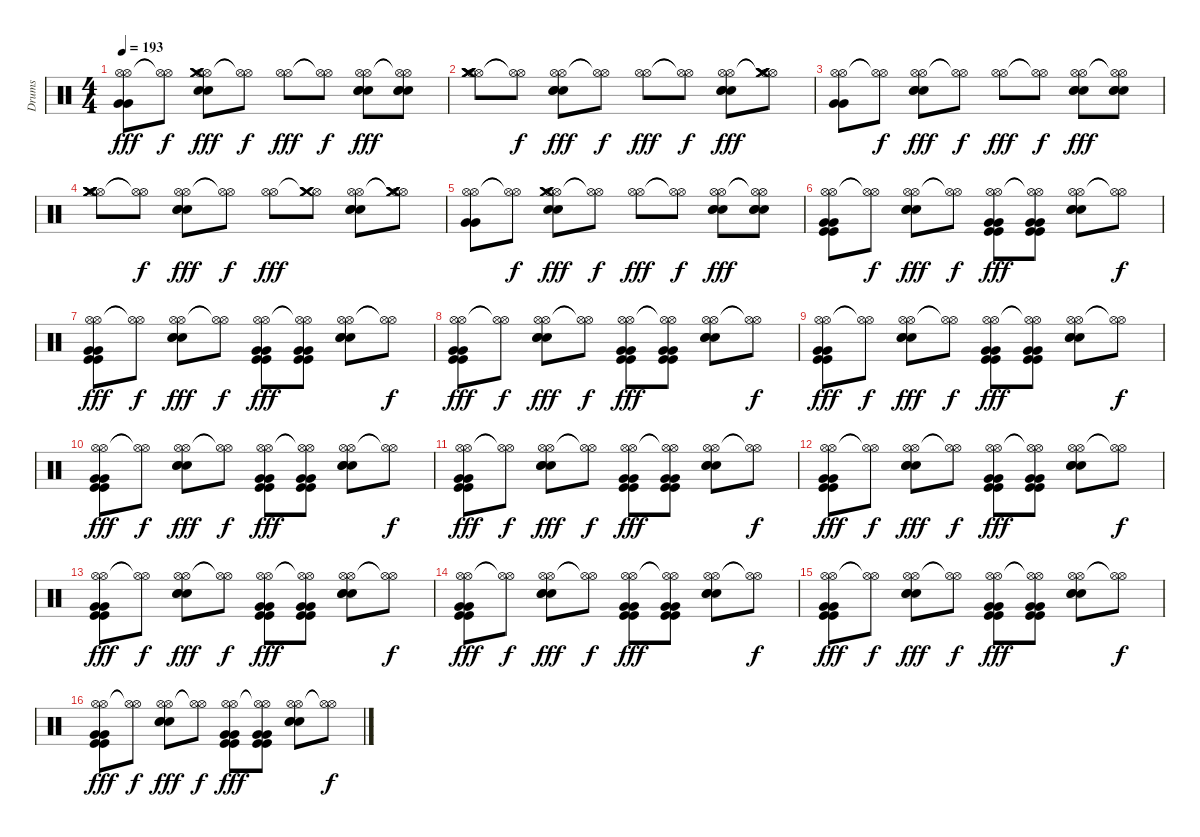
\track ("Drums" "Drums") {instrument percussion}
\staff {score}
\articulation defaults
\ts (4 4)
\tempo 193
\clef neutral
\ks c
("Hi-Hat (open)" "Hi-Hat (open)" "Very Low Tom (hit)" "Very Low Tom (hit)").8{dy fff} ("Hi-Hat (open)"{t} "Hi-Hat (open)"{t}).8{dy f} ("Hi-Hat (open)" "Hi-Hat (open)" "Crash medium (hit)" "Crash medium (hit)" "Snare (hit) 2" "Snare (hit) 2").8{dy fff} ("Hi-Hat (open)"{t} "Hi-Hat (open)"{t}).8{dy f} ("Hi-Hat (open)" "Hi-Hat (open)").8{dy fff} ("Hi-Hat (open)"{t} "Hi-Hat (open)"{t}).8{dy f} ("Hi-Hat (open)" "Hi-Hat (open)" "Snare (hit) 2" "Snare (hit) 2" "Snare (hit) 2").8{dy fff} ("Hi-Hat (open)"{t} "Hi-Hat (open)"{t} "Snare (hit) 2" "Snare (hit) 2" "Snare (hit) 2").8 |
("Hi-Hat (open)" "Hi-Hat (open)" "Crash medium (hit)" "Crash medium (hit)" "Crash medium (hit)" "Crash medium (hit)").8 ("Hi-Hat (open)"{t} "Hi-Hat (open)"{t}).8{dy f} ("Hi-Hat (open)" "Hi-Hat (open)" "Snare (hit) 2" "Snare (hit) 2" "Snare (hit) 2").8{dy fff} ("Hi-Hat (open)"{t} "Hi-Hat (open)"{t}).8{dy f} ("Hi-Hat (open)" "Hi-Hat (open)").8{dy fff} ("Hi-Hat (open)"{t} "Hi-Hat (open)"{t}).8{dy f} ("Hi-Hat (open)" "Hi-Hat (open)" "Snare (hit) 2" "Snare (hit) 2" "Snare (hit) 2").8{dy fff} ("Hi-Hat (open)"{t} "Hi-Hat (open)"{t} "Crash medium (hit)" "Crash medium (hit)" "Crash medium (hit)").8 |
("Hi-Hat (open)" "Hi-Hat (open)" "Very Low Tom (hit)" "Very Low Tom (hit)").8 ("Hi-Hat (open)"{t} "Hi-Hat (open)"{t}).8{dy f} ("Hi-Hat (open)" "Hi-Hat (open)" "Snare (hit) 2" "Snare (hit) 2" "Snare (hit) 2").8{dy fff} ("Hi-Hat (open)"{t} "Hi-Hat (open)"{t}).8{dy f} ("Hi-Hat (open)" "Hi-Hat (open)").8{dy fff} ("Hi-Hat (open)"{t} "Hi-Hat (open)"{t}).8{dy f} ("Hi-Hat (open)" "Hi-Hat (open)" "Snare (hit) 2" "Snare (hit) 2" "Snare (hit) 2").8{dy fff} ("Hi-Hat (open)"{t} "Hi-Hat (open)"{t} "Snare (hit) 2" "Snare (hit) 2" "Snare (hit) 2").8 |
("Hi-Hat (open)" "Hi-Hat (open)" "Crash medium (hit)" "Crash medium (hit)" "Crash medium (hit)" "Crash medium (hit)").8 ("Hi-Hat (open)"{t} "Hi-Hat (open)"{t}).8{dy f} ("Hi-Hat (open)" "Hi-Hat (open)" "Snare (hit) 2" "Snare (hit) 2" "Snare (hit) 2").8{dy fff} ("Hi-Hat (open)"{t} "Hi-Hat (open)"{t}).8{dy f} ("Hi-Hat (open)" "Hi-Hat (open)").8{dy fff} ("Hi-Hat (open)"{t} "Crash medium (hit)" "Crash medium (hit)" "Crash medium (hit)").8 ("Hi-Hat (open)" "Hi-Hat (open)" "Snare (hit) 2" "Snare (hit) 2" "Snare (hit) 2").8 ("Hi-Hat (open)"{t} "Hi-Hat (open)"{t} "Crash medium (hit)" "Crash medium (hit)" "Crash medium (hit)").8 |
("Hi-Hat (open)" "Hi-Hat (open)" "Very Low Tom (hit)" "Very Low Tom (hit)").8 ("Hi-Hat (open)"{t} "Hi-Hat (open)"{t}).8{dy f} ("Hi-Hat (open)" "Hi-Hat (open)" "Crash medium (hit)" "Crash medium (hit)" "Snare (hit) 2" "Snare (hit) 2").8{dy fff} ("Hi-Hat (open)"{t} "Hi-Hat (open)"{t}).8{dy f} ("Hi-Hat (open)" "Hi-Hat (open)").8{dy fff} ("Hi-Hat (open)"{t} "Hi-Hat (open)"{t}).8{dy f} ("Hi-Hat (open)" "Hi-Hat (open)" "Snare (hit) 2" "Snare (hit) 2" "Snare (hit) 2").8{dy fff} ("Hi-Hat (open)"{t} "Hi-Hat (open)"{t} "Snare (hit) 2" "Snare (hit) 2" "Snare (hit) 2").8 |
("Hi-Hat (open)" "Hi-Hat (open)" "Kick (hit)" "Kick (hit)" "Very Low Tom (hit)" "Very Low Tom (hit)").8 ("Hi-Hat (open)"{t} "Hi-Hat (open)"{t}).8{dy f} ("Hi-Hat (open)" "Hi-Hat (open)" "Snare (hit) 2" "Snare (hit) 2" "Snare (hit) 2").8{dy fff} ("Hi-Hat (open)"{t} "Hi-Hat (open)"{t}).8{dy f} ("Hi-Hat (open)" "Hi-Hat (open)" "Kick (hit)" "Kick (hit)" "Very Low Tom (hit)" "Very Low Tom (hit)").8{dy fff} ("Hi-Hat (open)"{t} "Hi-Hat (open)"{t} "Kick (hit)" "Kick (hit)" "Very Low Tom (hit)" "Very Low Tom (hit)").8 ("Hi-Hat (open)" "Hi-Hat (open)" "Snare (hit) 2" "Snare (hit) 2" "Snare (hit) 2").8 ("Hi-Hat (open)"{t} "Hi-Hat (open)"{t}).8{dy f} |
("Hi-Hat (open)" "Hi-Hat (open)" "Kick (hit)" "Kick (hit)" "Very Low Tom (hit)" "Very Low Tom (hit)").8{dy fff} ("Hi-Hat (open)"{t} "Hi-Hat (open)"{t}).8{dy f} ("Hi-Hat (open)" "Hi-Hat (open)" "Snare (hit) 2" "Snare (hit) 2" "Snare (hit) 2").8{dy fff} ("Hi-Hat (open)"{t} "Hi-Hat (open)"{t}).8{dy f} ("Hi-Hat (open)" "Hi-Hat (open)" "Kick (hit)" "Kick (hit)" "Very Low Tom (hit)" "Very Low Tom (hit)").8{dy fff} ("Hi-Hat (open)"{t} "Hi-Hat (open)"{t} "Kick (hit)" "Kick (hit)" "Very Low Tom (hit)" "Very Low Tom (hit)").8 ("Hi-Hat (open)" "Hi-Hat (open)" "Snare (hit) 2" "Snare (hit) 2" "Snare (hit) 2").8 ("Hi-Hat (open)"{t} "Hi-Hat (open)"{t}).8{dy f} |
("Hi-Hat (open)" "Hi-Hat (open)" "Kick (hit)" "Kick (hit)" "Very Low Tom (hit)" "Very Low Tom (hit)").8{dy fff} ("Hi-Hat (open)"{t} "Hi-Hat (open)"{t}).8{dy f} ("Hi-Hat (open)" "Hi-Hat (open)" "Snare (hit) 2" "Snare (hit) 2" "Snare (hit) 2").8{dy fff} ("Hi-Hat (open)"{t} "Hi-Hat (open)"{t}).8{dy f} ("Hi-Hat (open)" "Hi-Hat (open)" "Kick (hit)" "Kick (hit)" "Very Low Tom (hit)" "Very Low Tom (hit)").8{dy fff} ("Hi-Hat (open)"{t} "Hi-Hat (open)"{t} "Kick (hit)" "Kick (hit)" "Very Low Tom (hit)" "Very Low Tom (hit)").8 ("Hi-Hat (open)" "Hi-Hat (open)" "Snare (hit) 2" "Snare (hit) 2" "Snare (hit) 2").8 ("Hi-Hat (open)"{t} "Hi-Hat (open)"{t}).8{dy f} |
("Hi-Hat (open)" "Hi-Hat (open)" "Kick (hit)" "Kick (hit)" "Very Low Tom (hit)" "Very Low Tom (hit)").8{dy fff} ("Hi-Hat (open)"{t} "Hi-Hat (open)"{t}).8{dy f} ("Hi-Hat (open)" "Hi-Hat (open)" "Snare (hit) 2" "Snare (hit) 2" "Snare (hit) 2").8{dy fff} ("Hi-Hat (open)"{t} "Hi-Hat (open)"{t}).8{dy f} ("Hi-Hat (open)" "Hi-Hat (open)" "Kick (hit)" "Kick (hit)" "Very Low Tom (hit)" "Very Low Tom (hit)").8{dy fff} ("Hi-Hat (open)"{t} "Hi-Hat (open)"{t} "Kick (hit)" "Kick (hit)" "Very Low Tom (hit)" "Very Low Tom (hit)").8 ("Hi-Hat (open)" "Hi-Hat (open)" "Snare (hit) 2" "Snare (hit) 2" "Snare (hit) 2").8 ("Hi-Hat (open)"{t} "Hi-Hat (open)"{t}).8{dy f} |
("Hi-Hat (open)" "Hi-Hat (open)" "Kick (hit)" "Kick (hit)" "Very Low Tom (hit)" "Very Low Tom (hit)").8{dy fff} ("Hi-Hat (open)"{t} "Hi-Hat (open)"{t}).8{dy f} ("Hi-Hat (open)" "Hi-Hat (open)" "Snare (hit) 2" "Snare (hit) 2" "Snare (hit) 2").8{dy fff} ("Hi-Hat (open)"{t} "Hi-Hat (open)"{t}).8{dy f} ("Hi-Hat (open)" "Hi-Hat (open)" "Kick (hit)" "Kick (hit)" "Very Low Tom (hit)" "Very Low Tom (hit)").8{dy fff} ("Hi-Hat (open)"{t} "Hi-Hat (open)"{t} "Kick (hit)" "Kick (hit)" "Very Low Tom (hit)" "Very Low Tom (hit)").8 ("Hi-Hat (open)" "Hi-Hat (open)" "Snare (hit) 2" "Snare (hit) 2" "Snare (hit) 2").8 ("Hi-Hat (open)"{t} "Hi-Hat (open)"{t}).8{dy f} |
("Hi-Hat (open)" "Hi-Hat (open)" "Kick (hit)" "Kick (hit)" "Very Low Tom (hit)" "Very Low Tom (hit)").8{dy fff} ("Hi-Hat (open)"{t} "Hi-Hat (open)"{t}).8{dy f} ("Hi-Hat (open)" "Hi-Hat (open)" "Snare (hit) 2" "Snare (hit) 2" "Snare (hit) 2").8{dy fff} ("Hi-Hat (open)"{t} "Hi-Hat (open)"{t}).8{dy f} ("Hi-Hat (open)" "Hi-Hat (open)" "Kick (hit)" "Kick (hit)" "Very Low Tom (hit)" "Very Low Tom (hit)").8{dy fff} ("Hi-Hat (open)"{t} "Hi-Hat (open)"{t} "Kick (hit)" "Kick (hit)" "Very Low Tom (hit)" "Very Low Tom (hit)").8 ("Hi-Hat (open)" "Hi-Hat (open)" "Snare (hit) 2" "Snare (hit) 2" "Snare (hit) 2").8 ("Hi-Hat (open)"{t} "Hi-Hat (open)"{t}).8{dy f} |
("Hi-Hat (open)" "Hi-Hat (open)" "Kick (hit)" "Kick (hit)" "Very Low Tom (hit)" "Very Low Tom (hit)").8{dy fff} ("Hi-Hat (open)"{t} "Hi-Hat (open)"{t}).8{dy f} ("Hi-Hat (open)" "Hi-Hat (open)" "Snare (hit) 2" "Snare (hit) 2" "Snare (hit) 2").8{dy fff} ("Hi-Hat (open)"{t} "Hi-Hat (open)"{t}).8{dy f} ("Hi-Hat (open)" "Hi-Hat (open)" "Kick (hit)" "Kick (hit)" "Very Low Tom (hit)" "Very Low Tom (hit)").8{dy fff} ("Hi-Hat (open)"{t} "Hi-Hat (open)"{t} "Kick (hit)" "Kick (hit)" "Very Low Tom (hit)" "Very Low Tom (hit)").8 ("Hi-Hat (open)" "Hi-Hat (open)" "Snare (hit) 2" "Snare (hit) 2" "Snare (hit) 2").8 ("Hi-Hat (open)"{t} "Hi-Hat (open)"{t}).8{dy f} |
("Hi-Hat (open)" "Hi-Hat (open)" "Kick (hit)" "Kick (hit)" "Very Low Tom (hit)" "Very Low Tom (hit)").8{dy fff} ("Hi-Hat (open)"{t} "Hi-Hat (open)"{t}).8{dy f} ("Hi-Hat (open)" "Hi-Hat (open)" "Snare (hit) 2" "Snare (hit) 2" "Snare (hit) 2").8{dy fff} ("Hi-Hat (open)"{t} "Hi-Hat (open)"{t}).8{dy f} ("Hi-Hat (open)" "Hi-Hat (open)" "Kick (hit)" "Kick (hit)" "Very Low Tom (hit)" "Very Low Tom (hit)").8{dy fff} ("Hi-Hat (open)"{t} "Hi-Hat (open)"{t} "Kick (hit)" "Kick (hit)" "Very Low Tom (hit)" "Very Low Tom (hit)").8 ("Hi-Hat (open)" "Hi-Hat (open)" "Snare (hit) 2" "Snare (hit) 2" "Snare (hit) 2").8 ("Hi-Hat (open)"{t} "Hi-Hat (open)"{t}).8{dy f} |
("Hi-Hat (open)" "Hi-Hat (open)" "Kick (hit)" "Kick (hit)" "Very Low Tom (hit)" "Very Low Tom (hit)").8{dy fff} ("Hi-Hat (open)"{t} "Hi-Hat (open)"{t}).8{dy f} ("Hi-Hat (open)" "Hi-Hat (open)" "Snare (hit) 2" "Snare (hit) 2" "Snare (hit) 2").8{dy fff} ("Hi-Hat (open)"{t} "Hi-Hat (open)"{t}).8{dy f} ("Hi-Hat (open)" "Hi-Hat (open)" "Kick (hit)" "Kick (hit)" "Very Low Tom (hit)" "Very Low Tom (hit)").8{dy fff} ("Hi-Hat (open)"{t} "Hi-Hat (open)"{t} "Kick (hit)" "Kick (hit)" "Very Low Tom (hit)" "Very Low Tom (hit)").8 ("Hi-Hat (open)" "Hi-Hat (open)" "Snare (hit) 2" "Snare (hit) 2" "Snare (hit) 2").8 ("Hi-Hat (open)"{t} "Hi-Hat (open)"{t}).8{dy f} |
("Hi-Hat (open)" "Hi-Hat (open)" "Kick (hit)" "Kick (hit)" "Very Low Tom (hit)" "Very Low Tom (hit)").8{dy fff} ("Hi-Hat (open)"{t} "Hi-Hat (open)"{t}).8{dy f} ("Hi-Hat (open)" "Hi-Hat (open)" "Snare (hit) 2" "Snare (hit) 2" "Snare (hit) 2").8{dy fff} ("Hi-Hat (open)"{t} "Hi-Hat (open)"{t}).8{dy f} ("Hi-Hat (open)" "Hi-Hat (open)" "Kick (hit)" "Kick (hit)" "Very Low Tom (hit)" "Very Low Tom (hit)").8{dy fff} ("Hi-Hat (open)"{t} "Hi-Hat (open)"{t} "Kick (hit)" "Kick (hit)" "Very Low Tom (hit)" "Very Low Tom (hit)").8 ("Hi-Hat (open)" "Hi-Hat (open)" "Snare (hit) 2" "Snare (hit) 2" "Snare (hit) 2").8 ("Hi-Hat (open)"{t} "Hi-Hat (open)"{t}).8{dy f} |
("Hi-Hat (open)" "Hi-Hat (open)" "Kick (hit)" "Kick (hit)" "Very Low Tom (hit)" "Very Low Tom (hit)").8{dy fff} ("Hi-Hat (open)"{t} "Hi-Hat (open)"{t}).8{dy f} ("Hi-Hat (open)" "Hi-Hat (open)" "Snare (hit) 2" "Snare (hit) 2" "Snare (hit) 2").8{dy fff} ("Hi-Hat (open)"{t} "Hi-Hat (open)"{t}).8{dy f} ("Hi-Hat (open)" "Hi-Hat (open)" "Kick (hit)" "Kick (hit)" "Very Low Tom (hit)" "Very Low Tom (hit)").8{dy fff} ("Hi-Hat (open)"{t} "Hi-Hat (open)"{t} "Kick (hit)" "Kick (hit)" "Very Low Tom (hit)" "Very Low Tom (hit)").8 ("Hi-Hat (open)" "Hi-Hat (open)" "Snare (hit) 2" "Snare (hit) 2" "Snare (hit) 2").8 ("Hi-Hat (open)"{t} "Hi-Hat (open)"{t}).8{dy f}
